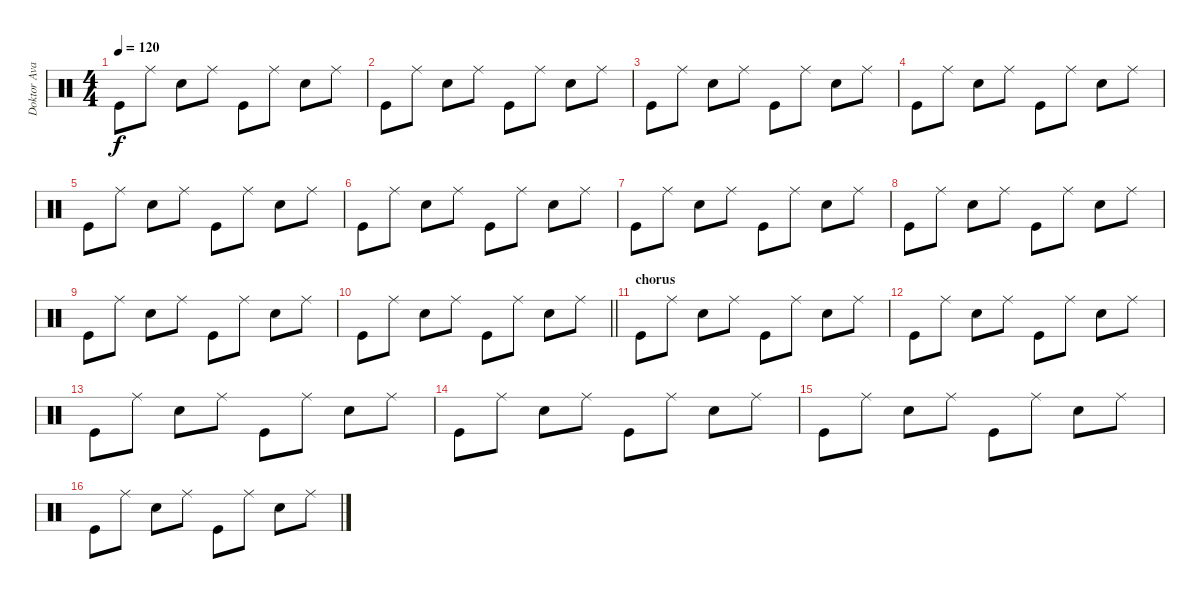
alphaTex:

\track ("Doktor Avalanche" "Doktor Ava") {instrument percussion}
\staff {score}
\articulation defaults
\ts (4 4)
\tempo 120
\clef neutral
\ks c "Kick (hit)".8{dy f} "Ride (middle)".8 "Snare (hit) 2".8 "Ride (middle)".8 "Kick (hit)".8 "Ride (middle)".8 "Snare (hit) 2".8 "Ride (middle)".8
|
"Kick (hit)".8 "Ride (middle)".8 "Snare (hit) 2".8 "Ride (middle)".8 "Kick (hit)".8 "Ride (middle)".8 "Snare (hit) 2".8 "Ride (middle)".8 |
"Kick (hit)".8 "Ride (middle)".8 "Snare (hit) 2".8 "Ride (middle)".8 "Kick (hit)".8 "Ride (middle)".8 "Snare (hit) 2".8 "Ride (middle)".8 |
"Kick (hit)".8 "Ride (middle)".8 "Snare (hit) 2".8 "Ride (middle)".8 "Kick (hit)".8 "Ride (middle)".8 "Snare (hit) 2".8 "Ride (middle)".8 |
"Kick (hit)".8 "Ride (middle)".8 "Snare (hit) 2".8 "Ride (middle)".8 "Kick (hit)".8 "Ride (middle)".8 "Snare (hit) 2".8 "Ride (middle)".8 |
"Kick (hit)".8 "Ride (middle)".8 "Snare (hit) 2".8 "Ride (middle)".8 "Kick (hit)".8 "Ride (middle)".8 "Snare (hit) 2".8 "Ride (middle)".8 |
"Kick (hit)".8 "Ride (middle)".8 "Snare (hit) 2".8 "Ride (middle)".8 "Kick (hit)".8 "Ride (middle)".8 "Snare (hit) 2".8 "Ride (middle)".8 |
"Kick (hit)".8 "Ride (middle)".8 "Snare (hit) 2".8 "Ride (middle)".8 "Kick (hit)".8 "Ride (middle)".8 "Snare (hit) 2".8 "Ride (middle)".8 |
"Kick (hit)".8 "Ride (middle)".8 "Snare (hit) 2".8 "Ride (middle)".8 "Kick (hit)".8 "Ride (middle)".8 "Snare (hit) 2".8 "Ride (middle)".8 |
\barLineRight lightlight "Kick (hit)".8 "Ride (middle)".8 "Snare (hit) 2".8 "Ride (middle)".8 "Kick (hit)".8 "Ride (middle)".8 "Snare (hit) 2".8 "Ride (middle)".8
|
\section ("" "chorus")
"Kick (hit)".8 "Ride (middle)".8 "Snare (hit) 2".8 "Ride (middle)".8 "Kick (hit)".8 "Ride (middle)".8 "Snare (hit) 2".8 "Ride (middle)".8 |
"Kick (hit)".8 "Ride (middle)".8 "Snare (hit) 2".8 "Ride (middle)".8 "Kick (hit)".8 "Ride (middle)".8 "Snare (hit) 2".8 "Ride (middle)".8 |
"Kick (hit)".8 "Ride (middle)".8 "Snare (hit) 2".8 "Ride (middle)".8 "Kick (hit)".8 "Ride (middle)".8 "Snare (hit) 2".8 "Ride (middle)".8 |
"Kick (hit)".8 "Ride (middle)".8 "Snare (hit) 2".8 "Ride (middle)".8 "Kick (hit)".8 "Ride (middle)".8 "Snare (hit) 2".8 "Ride (middle)".8 |
"Kick (hit)".8 "Ride (middle)".8 "Snare (hit) 2".8 "Ride (middle)".8 "Kick (hit)".8 "Ride (middle)".8 "Snare (hit) 2".8 "Ride (middle)".8 |
"Kick (hit)".8 "Ride (middle)".8 "Snare (hit) 2".8 "Ride (middle)".8 "Kick (hit)".8 "Ride (middle)".8 "Snare (hit) 2".8 "Ride (middle)".8
